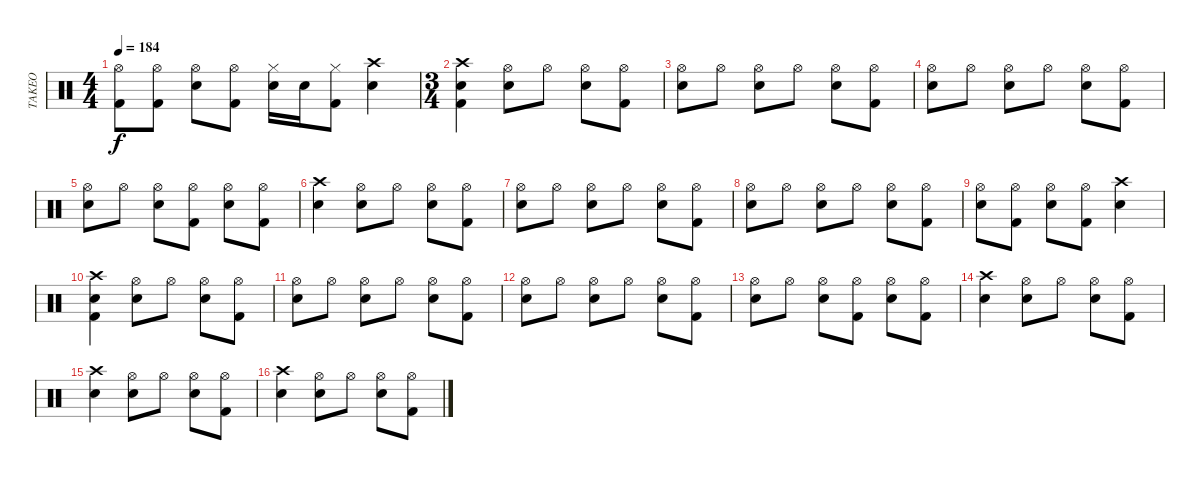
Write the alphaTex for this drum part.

\track ("TAKEO" "TAKEO") {instrument percussion}
\staff {score}
\articulation defaults
\ts (4 4)
\tempo 184
\clef neutral
\ks c
("Hi-Hat (open)" "Kick (hit) 2").8{dy f} ("Hi-Hat (open)" "Kick (hit) 2").8 ("Hi-Hat (open)" "Electric Snare (hit)").8 ("Hi-Hat (open)" "Kick (hit) 2").8 ("Hi-Hat (closed)" "Electric Snare (hit)").16 "Electric Snare (hit)".16 ("Hi-Hat (closed)" "Kick (hit) 2").8 ("Crash high (hit)" "Electric Snare (hit)").4 |
\ts (3 4)
("Crash high (hit)" "Electric Snare (hit)" "Kick (hit) 2").4 ("Hi-Hat (open)" "Electric Snare (hit)").8 "Hi-Hat (open)".8 ("Hi-Hat (open)" "Electric Snare (hit)").8 ("Hi-Hat (open)" "Kick (hit) 2").8 |
("Hi-Hat (open)" "Electric Snare (hit)").8 "Hi-Hat (open)".8 ("Hi-Hat (open)" "Electric Snare (hit)").8 "Hi-Hat (open)".8 ("Hi-Hat (open)" "Electric Snare (hit)").8 ("Hi-Hat (open)" "Kick (hit) 2").8 |
("Hi-Hat (open)" "Electric Snare (hit)").8 "Hi-Hat (open)".8 ("Hi-Hat (open)" "Electric Snare (hit)").8 "Hi-Hat (open)".8 ("Hi-Hat (open)" "Electric Snare (hit)").8 ("Hi-Hat (open)" "Kick (hit) 2").8 |
("Hi-Hat (open)" "Electric Snare (hit)").8 "Hi-Hat (open)".8 ("Hi-Hat (open)" "Electric Snare (hit)").8 ("Hi-Hat (open)" "Kick (hit) 2").8 ("Hi-Hat (open)" "Electric Snare (hit)").8 ("Hi-Hat (open)" "Kick (hit) 2").8 |
("Crash high (hit)" "Electric Snare (hit)").4 ("Hi-Hat (open)" "Electric Snare (hit)").8 "Hi-Hat (open)".8 ("Hi-Hat (open)" "Electric Snare (hit)").8 ("Hi-Hat (open)" "Kick (hit) 2").8 |
("Hi-Hat (open)" "Electric Snare (hit)").8 "Hi-Hat (open)".8 ("Hi-Hat (open)" "Electric Snare (hit)").8 "Hi-Hat (open)".8 ("Hi-Hat (open)" "Electric Snare (hit)").8 ("Hi-Hat (open)" "Kick (hit) 2").8 |
("Hi-Hat (open)" "Electric Snare (hit)").8 "Hi-Hat (open)".8 ("Hi-Hat (open)" "Electric Snare (hit)").8 "Hi-Hat (open)".8 ("Hi-Hat (open)" "Electric Snare (hit)").8 ("Hi-Hat (open)" "Kick (hit) 2").8 |
("Hi-Hat (open)" "Electric Snare (hit)").8 ("Hi-Hat (open)" "Kick (hit) 2").8 ("Hi-Hat (open)" "Electric Snare (hit)").8 ("Hi-Hat (open)" "Kick (hit) 2").8 ("Crash high (hit)" "Electric Snare (hit)").4 |
("Crash high (hit)" "Electric Snare (hit)" "Kick (hit) 2").4 ("Hi-Hat (open)" "Electric Snare (hit)").8 "Hi-Hat (open)".8 ("Hi-Hat (open)" "Electric Snare (hit)").8 ("Hi-Hat (open)" "Kick (hit) 2").8 |
("Hi-Hat (open)" "Electric Snare (hit)").8 "Hi-Hat (open)".8 ("Hi-Hat (open)" "Electric Snare (hit)").8 "Hi-Hat (open)".8 ("Hi-Hat (open)" "Electric Snare (hit)").8 ("Hi-Hat (open)" "Kick (hit) 2").8 |
("Hi-Hat (open)" "Electric Snare (hit)").8 "Hi-Hat (open)".8 ("Hi-Hat (open)" "Electric Snare (hit)").8 "Hi-Hat (open)".8 ("Hi-Hat (open)" "Electric Snare (hit)").8 ("Hi-Hat (open)" "Kick (hit) 2").8 |
("Hi-Hat (open)" "Electric Snare (hit)").8 "Hi-Hat (open)".8 ("Hi-Hat (open)" "Electric Snare (hit)").8 ("Hi-Hat (open)" "Kick (hit) 2").8 ("Hi-Hat (open)" "Electric Snare (hit)").8 ("Hi-Hat (open)" "Kick (hit) 2").8 |
("Crash high (hit)" "Electric Snare (hit)").4 ("Hi-Hat (open)" "Electric Snare (hit)").8 "Hi-Hat (open)".8 ("Hi-Hat (open)" "Electric Snare (hit)").8 ("Hi-Hat (open)" "Kick (hit) 2").8 |
("Crash high (hit)" "Electric Snare (hit)").4 ("Hi-Hat (open)" "Electric Snare (hit)").8 "Hi-Hat (open)".8 ("Hi-Hat (open)" "Electric Snare (hit)").8 ("Hi-Hat (open)" "Kick (hit) 2").8 |
("Crash high (hit)" "Electric Snare (hit)").4 ("Hi-Hat (open)" "Electric Snare (hit)").8 "Hi-Hat (open)".8 ("Hi-Hat (open)" "Electric Snare (hit)").8 ("Hi-Hat (open)" "Kick (hit) 2").8
